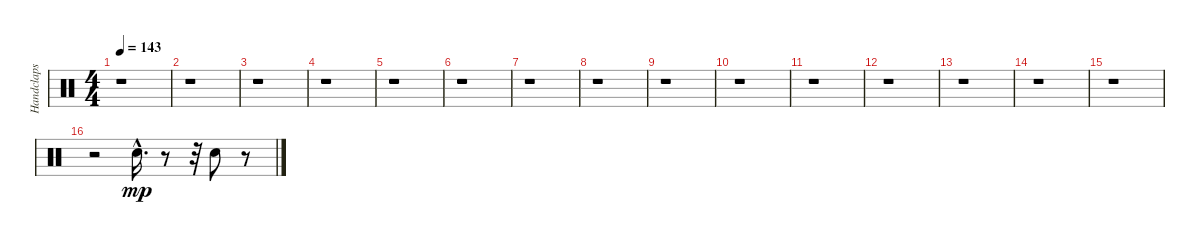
\track ("Handclaps" "Handclaps") {instrument percussion}
\staff {score}
\articulation defaults
\ts (4 4)
\tempo 143
\clef neutral
\ks c
r.1{dy f} |
r.1 |
r.1 |
r.1 |
r.1 |
r.1 |
r.1 |
r.1 |
r.1 |
r.1 |
r.1 |
r.1 |
r.1 |
r.1 |
r.1 |
r.2 "Hand Clap (hit)"{hac}.16{d dy mp} r.8 r.32 "Hand Clap (hit)".8 r.8
